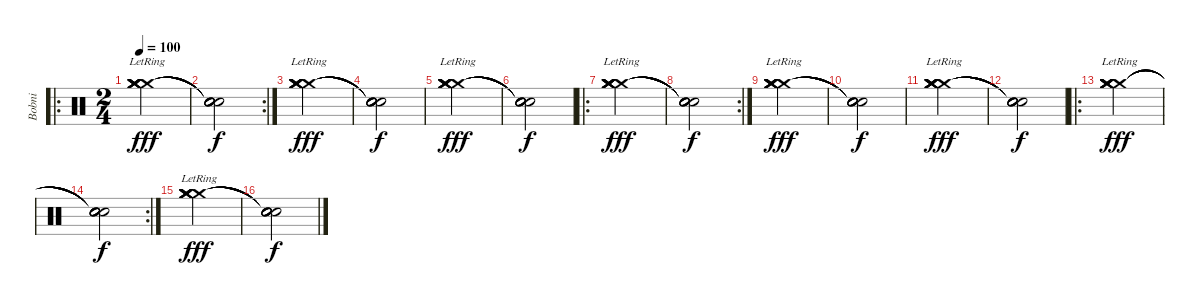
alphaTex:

\track ("Bobni" "Bobni") {instrument percussion}
\staff {score}
\articulation defaults
\ro
\ts (2 4)
\tempo 100
\clef neutral
\ks c
("Crash medium (hit)"{lr} "Crash medium (hit)"{lr} "Crash medium (hit)"{lr} "Crash medium (hit)"{lr} "Crash medium (hit)"{lr} "Crash medium (hit)"{lr}).2{dy fff} |
\rc 2
("Snare (hit)"{t} "Snare (hit)"{t} "Snare (hit)"{t} "Snare (hit)"{t} "Snare (hit)"{t} "Snare (hit)"{t}).2{dy f} |
("Crash medium (hit)"{lr} "Crash medium (hit)"{lr} "Crash medium (hit)"{lr} "Crash medium (hit)"{lr} "Crash medium (hit)"{lr} "Crash medium (hit)"{lr}).2{dy fff} |
("Snare (hit)"{t} "Snare (hit)"{t} "Snare (hit)"{t} "Snare (hit)"{t} "Snare (hit)"{t} "Snare (hit)"{t}).2{dy f} |
("Crash medium (hit)"{lr} "Crash medium (hit)"{lr} "Crash medium (hit)"{lr} "Crash medium (hit)"{lr} "Crash medium (hit)"{lr} "Crash medium (hit)"{lr}).2{dy fff} |
("Snare (hit)"{t} "Snare (hit)"{t} "Snare (hit)"{t} "Snare (hit)"{t} "Snare (hit)"{t} "Snare (hit)"{t}).2{dy f} |
\ro
("Crash medium (hit)"{lr} "Crash medium (hit)"{lr} "Crash medium (hit)"{lr} "Crash medium (hit)"{lr} "Crash medium (hit)"{lr} "Crash medium (hit)"{lr}).2{dy fff} |
\rc 2
("Snare (hit)"{t} "Snare (hit)"{t} "Snare (hit)"{t} "Snare (hit)"{t} "Snare (hit)"{t} "Snare (hit)"{t}).2{dy f} |
("Crash medium (hit)"{lr} "Crash medium (hit)"{lr} "Crash medium (hit)"{lr} "Crash medium (hit)"{lr} "Crash medium (hit)"{lr} "Crash medium (hit)"{lr}).2{dy fff} |
("Snare (hit)"{t} "Snare (hit)"{t} "Snare (hit)"{t} "Snare (hit)"{t} "Snare (hit)"{t} "Snare (hit)"{t}).2{dy f} |
("Crash medium (hit)"{lr} "Crash medium (hit)"{lr} "Crash medium (hit)"{lr} "Crash medium (hit)"{lr} "Crash medium (hit)"{lr} "Crash medium (hit)"{lr}).2{dy fff} |
("Snare (hit)"{t} "Snare (hit)"{t} "Snare (hit)"{t} "Snare (hit)"{t} "Snare (hit)"{t} "Snare (hit)"{t}).2{dy f} |
\ro
("Crash medium (hit)"{lr} "Crash medium (hit)"{lr} "Crash medium (hit)"{lr} "Crash medium (hit)"{lr} "Crash medium (hit)"{lr} "Crash medium (hit)"{lr}).2{dy fff} |
\rc 2
("Snare (hit)"{t} "Snare (hit)"{t} "Snare (hit)"{t} "Snare (hit)"{t} "Snare (hit)"{t} "Snare (hit)"{t}).2{dy f} |
("Crash medium (hit)"{lr} "Crash medium (hit)"{lr} "Crash medium (hit)"{lr} "Crash medium (hit)"{lr} "Crash medium (hit)"{lr} "Crash medium (hit)"{lr}).2{dy fff} |
("Snare (hit)"{t} "Snare (hit)"{t} "Snare (hit)"{t} "Snare (hit)"{t} "Snare (hit)"{t} "Snare (hit)"{t}).2{dy f}
